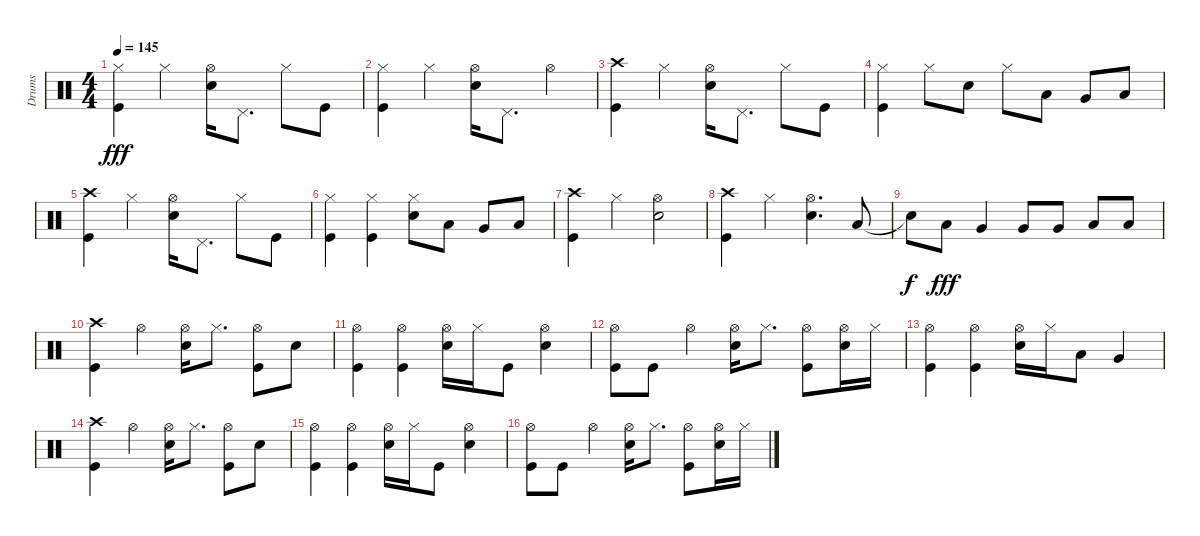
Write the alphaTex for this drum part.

\track ("Drums" "Drums") {instrument percussion}
\staff {score}
\articulation defaults
\ts (4 4)
\tempo 145
\clef neutral
\ks c
("Hi-Hat (closed)" "Kick (hit)").4{dy fff} "Hi-Hat (closed)".4 ("Hi-Hat (open)" "Snare (hit) 2").16 "Pedal Hi-Hat (hit)".8{d} "Hi-Hat (closed)".8 "Kick (hit)".8 |
("Hi-Hat (closed)" "Kick (hit)").4 "Hi-Hat (closed)".4 ("Hi-Hat (open)" "Snare (hit) 2").16 "Pedal Hi-Hat (hit)".8{d} "Hi-Hat (open)".4 |
("Crash high (hit)" "Kick (hit)").4 "Hi-Hat (closed)".4 ("Hi-Hat (open)" "Snare (hit) 2").16 "Pedal Hi-Hat (hit)".8{d} "Hi-Hat (closed)".8 "Kick (hit)".8 |
("Hi-Hat (closed)" "Kick (hit)").4 "Hi-Hat (closed)".8 "Snare (hit) 2".8 "Hi-Hat (closed)".8 "Low Tom (hit)".8 "Very Low Tom (hit)".8 "Low Floor Tom (hit)".8 |
("Crash high (hit)" "Kick (hit)").4 "Hi-Hat (closed)".4 ("Hi-Hat (open)" "Snare (hit) 2").16 "Pedal Hi-Hat (hit)".8{d} "Hi-Hat (closed)".8 "Kick (hit)".8 |
("Hi-Hat (closed)" "Kick (hit)").4 ("Hi-Hat (closed)" "Kick (hit)").4 ("Hi-Hat (closed)" "Snare (hit) 2").8 "Low Tom (hit)".8 "Very Low Tom (hit)".8 "Low Floor Tom (hit)".8 |
("Crash high (hit)" "Kick (hit)").4 "Hi-Hat (closed)".4 ("Hi-Hat (open)" "Snare (hit) 2").2 |
("Crash high (hit)" "Kick (hit)").4 "Hi-Hat (closed)".4 ("Hi-Hat (open)" "Snare (hit) 2").4{d} "Low Tom (hit)".8 |
"Snare (hit)"{t}.8{dy f} "Low Tom (hit)".8{dy fff} "Very Low Tom (hit)".4 "Very Low Tom (hit)".8 "Very Low Tom (hit)".8 "Low Floor Tom (hit)".8 "Low Floor Tom (hit)".8 |
("Crash high (hit)" "Kick (hit)").4 "Hi-Hat (open)".4 ("Hi-Hat (open)" "Snare (hit) 2").16 "Hi-Hat (closed)".8{d} ("Hi-Hat (open)" "Kick (hit)").8 "Snare (hit) 2".8 |
("Hi-Hat (open)" "Kick (hit)").4 ("Hi-Hat (open)" "Kick (hit)").4 ("Hi-Hat (open)" "Snare (hit) 2").16 "Hi-Hat (closed)".16 "Kick (hit)".8 ("Hi-Hat (open)" "Snare (hit) 2").4 |
("Hi-Hat (open)" "Kick (hit)").8 "Kick (hit)".8 "Hi-Hat (open)".4 ("Hi-Hat (open)" "Snare (hit) 2").16 "Hi-Hat (closed)".8{d} ("Hi-Hat (open)" "Kick (hit)").8 ("Hi-Hat (open)" "Snare (hit) 2").16 "Hi-Hat (closed)".16 |
("Hi-Hat (open)" "Kick (hit)").4 ("Hi-Hat (open)" "Kick (hit)").4 ("Hi-Hat (open)" "Snare (hit) 2").16 "Hi-Hat (closed)".16 "Low Tom (hit)".8 "Very Low Tom (hit)".4 |
("Crash high (hit)" "Kick (hit)").4 "Hi-Hat (open)".4 ("Hi-Hat (open)" "Snare (hit) 2").16 "Hi-Hat (closed)".8{d} ("Hi-Hat (open)" "Kick (hit)").8 "Snare (hit) 2".8 |
("Hi-Hat (open)" "Kick (hit)").4 ("Hi-Hat (open)" "Kick (hit)").4 ("Hi-Hat (open)" "Snare (hit) 2").16 "Hi-Hat (closed)".16 "Kick (hit)".8 ("Hi-Hat (open)" "Snare (hit) 2").4 |
("Hi-Hat (open)" "Kick (hit)").8 "Kick (hit)".8 "Hi-Hat (open)".4 ("Hi-Hat (open)" "Snare (hit) 2").16 "Hi-Hat (closed)".8{d} ("Hi-Hat (open)" "Kick (hit)").8 ("Hi-Hat (open)" "Snare (hit) 2").16 "Hi-Hat (closed)".16
